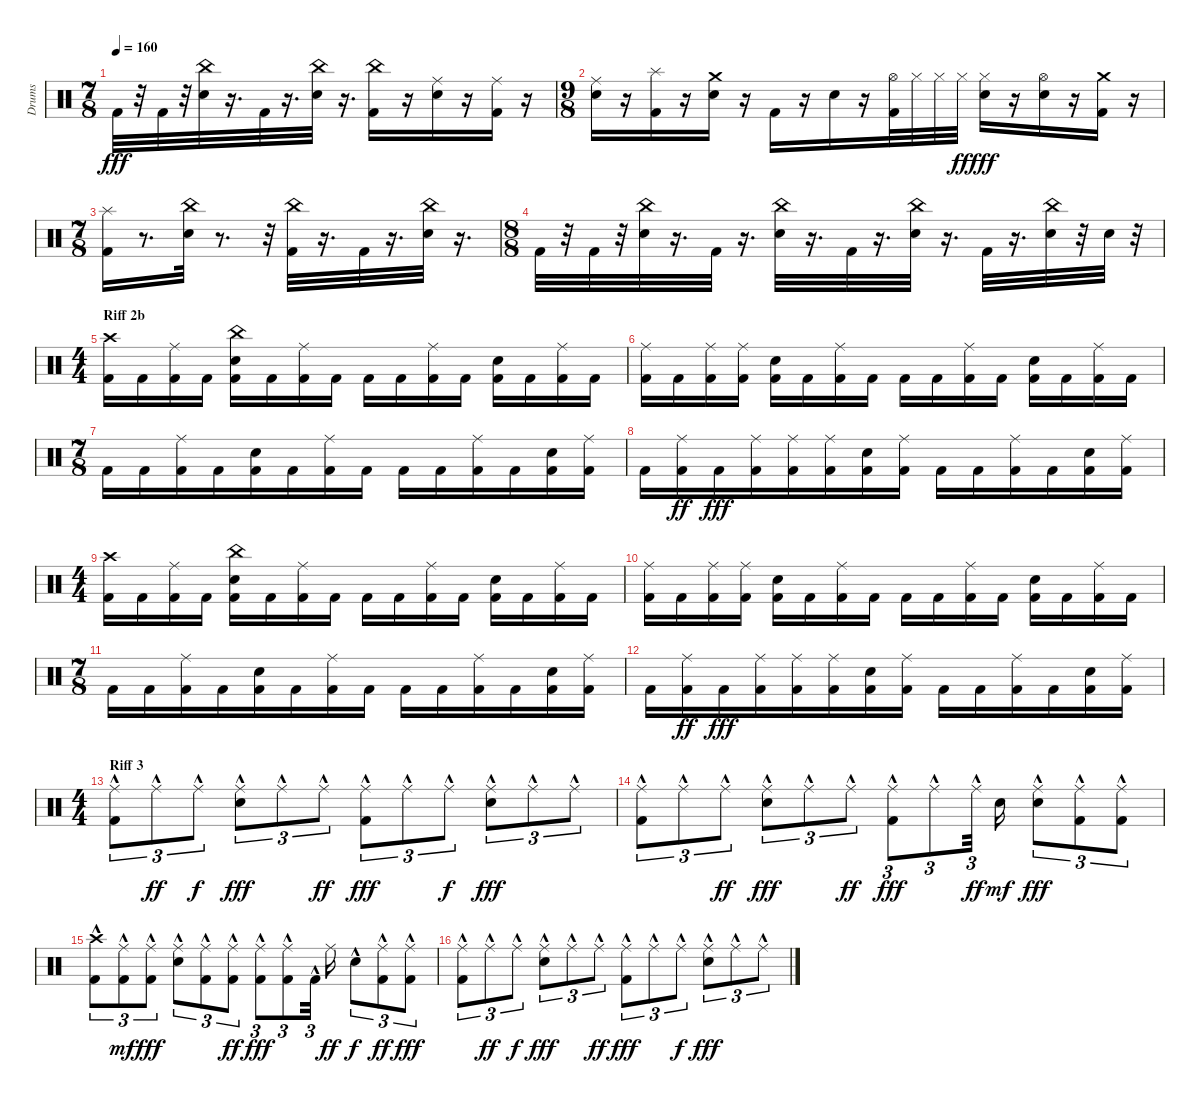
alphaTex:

\track ("Drums" "Drums") {instrument percussion}
\staff {score}
\articulation defaults
\ts (7 8)
\tempo 160
\clef neutral
\ks c "Kick (hit) 2".32{dy fff}
r.32 "Kick (hit) 2".32 r.32 ("Snare (hit) 2" "China (hit)").32 r.16{d} "Kick (hit) 2".32 r.16{d} ("Snare (hit) 2" "China (hit)").32 r.16{d} ("Kick (hit) 2" "China (hit)").16 r.16 ("Snare (hit) 2" "Ride (middle)").16 r.16 ("Kick (hit) 2" "Ride (middle)").16 r.16 |
\ts (9 8)
("Snare (hit) 2" "Ride (middle)").16 r.16 ("Kick (hit) 2" "Splash (hit)").16 r.16 ("Snare (hit) 2" "Crash medium (hit)").16 r.16 "Kick (hit) 2".16 r.16 "Snare (hit) 2".16 r.16 ("Kick (hit) 2" "Hi-Hat (open)").32 "Hi-Hat (closed)".32 "Hi-Hat (closed)".32 "Hi-Hat (closed)".32{dy ff} ("Snare (hit) 2" "Hi-Hat (closed)").16{dy fff} r.16 ("Snare (hit) 2" "Hi-Hat (open)").16 r.16 ("Kick (hit) 2" "Crash medium (hit)").16 r.16 |
\ts (7 8)
("Kick (hit) 2" "Splash (hit)").16 r.8{d} ("Snare (hit) 2" "China (hit)").32 r.8{d} r.32 ("Kick (hit) 2" "China (hit)").32 r.16{d} "Kick (hit) 2".32 r.16{d} ("Snare (hit) 2" "China (hit)").32 r.16{d} |
\ts (8 8)
"Kick (hit) 2".32 r.32 "Kick (hit) 2".32 r.32 ("Snare (hit) 2" "China (hit)").32 r.16{d} "Kick (hit) 2".32 r.16{d} ("Snare (hit) 2" "China (hit)").32 r.16{d} "Kick (hit) 2".32 r.16{d} ("Snare (hit) 2" "China (hit)").32 r.16{d} "Kick (hit) 2".32 r.16{d} ("Snare (hit) 2" "China (hit)").32 r.32 "Snare (hit) 2".32 r.32 |
\ts (4 4)
\section ("" "Riff 2b")
("Kick (hit) 2" "Crash high (hit)").16 "Kick (hit) 2".16 ("Kick (hit) 2" "Ride (middle)").16 "Kick (hit) 2".16 ("Kick (hit) 2" "Snare (hit) 2" "China (hit)").16 "Kick (hit) 2".16 ("Kick (hit) 2" "Ride (middle)").16 "Kick (hit) 2".16 "Kick (hit) 2".16 "Kick (hit) 2".16 ("Kick (hit) 2" "Ride (middle)").16 "Kick (hit) 2".16 ("Kick (hit) 2" "Snare (hit) 2").16 "Kick (hit) 2".16 ("Kick (hit) 2" "Ride (middle)").16 "Kick (hit) 2".16 |
("Kick (hit) 2" "Ride (middle)").16 "Kick (hit) 2".16 ("Kick (hit) 2" "Ride (middle)").16 ("Kick (hit) 2" "Ride (middle)").16 ("Kick (hit) 2" "Snare (hit) 2").16 "Kick (hit) 2".16 ("Kick (hit) 2" "Ride (middle)").16 "Kick (hit) 2".16 "Kick (hit) 2".16 "Kick (hit) 2".16 ("Kick (hit) 2" "Ride (middle)").16 "Kick (hit) 2".16 ("Kick (hit) 2" "Snare (hit) 2").16 "Kick (hit) 2".16 ("Kick (hit) 2" "Ride (middle)").16 "Kick (hit) 2".16 |
\ts (7 8)
"Kick (hit) 2".16 "Kick (hit) 2".16 ("Kick (hit) 2" "Ride (middle)").16 "Kick (hit) 2".16 ("Kick (hit) 2" "Snare (hit) 2").16 "Kick (hit) 2".16 ("Kick (hit) 2" "Ride (middle)").16 "Kick (hit) 2".16 "Kick (hit) 2".16 "Kick (hit) 2".16 ("Kick (hit) 2" "Ride (middle)").16 "Kick (hit) 2".16 ("Kick (hit) 2" "Snare (hit) 2").16 ("Kick (hit) 2" "Ride (middle)").16 |
"Kick (hit) 2".16 ("Kick (hit) 2" "Ride (middle)").16{dy ff} "Kick (hit) 2".16{dy fff} ("Kick (hit) 2" "Ride (middle)").16 ("Kick (hit) 2" "Ride (middle)").16 ("Kick (hit) 2" "Ride (middle)").16 ("Kick (hit) 2" "Snare (hit) 2").16 ("Kick (hit) 2" "Ride (middle)").16 "Kick (hit) 2".16 "Kick (hit) 2".16 ("Kick (hit) 2" "Ride (middle)").16 "Kick (hit) 2".16 ("Kick (hit) 2" "Snare (hit) 2").16 ("Kick (hit) 2" "Ride (middle)").16 |
\ts (4 4)
("Kick (hit) 2" "Crash high (hit)").16 "Kick (hit) 2".16 ("Kick (hit) 2" "Ride (middle)").16 "Kick (hit) 2".16 ("Kick (hit) 2" "Snare (hit) 2" "China (hit)").16 "Kick (hit) 2".16 ("Kick (hit) 2" "Ride (middle)").16 "Kick (hit) 2".16 "Kick (hit) 2".16 "Kick (hit) 2".16 ("Kick (hit) 2" "Ride (middle)").16 "Kick (hit) 2".16 ("Kick (hit) 2" "Snare (hit) 2").16 "Kick (hit) 2".16 ("Kick (hit) 2" "Ride (middle)").16 "Kick (hit) 2".16 |
("Kick (hit) 2" "Ride (middle)").16 "Kick (hit) 2".16 ("Kick (hit) 2" "Ride (middle)").16 ("Kick (hit) 2" "Ride (middle)").16 ("Kick (hit) 2" "Snare (hit) 2").16 "Kick (hit) 2".16 ("Kick (hit) 2" "Ride (middle)").16 "Kick (hit) 2".16 "Kick (hit) 2".16 "Kick (hit) 2".16 ("Kick (hit) 2" "Ride (middle)").16 "Kick (hit) 2".16 ("Kick (hit) 2" "Snare (hit) 2").16 "Kick (hit) 2".16 ("Kick (hit) 2" "Ride (middle)").16 "Kick (hit) 2".16 |
\ts (7 8)
"Kick (hit) 2".16 "Kick (hit) 2".16 ("Kick (hit) 2" "Ride (middle)").16 "Kick (hit) 2".16 ("Kick (hit) 2" "Snare (hit) 2").16 "Kick (hit) 2".16 ("Kick (hit) 2" "Ride (middle)").16 "Kick (hit) 2".16 "Kick (hit) 2".16 "Kick (hit) 2".16 ("Kick (hit) 2" "Ride (middle)").16 "Kick (hit) 2".16 ("Kick (hit) 2" "Snare (hit) 2").16 ("Kick (hit) 2" "Ride (middle)").16 |
"Kick (hit) 2".16 ("Kick (hit) 2" "Ride (middle)").16{dy ff} "Kick (hit) 2".16{dy fff} ("Kick (hit) 2" "Ride (middle)").16 ("Kick (hit) 2" "Ride (middle)").16 ("Kick (hit) 2" "Ride (middle)").16 ("Kick (hit) 2" "Snare (hit) 2").16 ("Kick (hit) 2" "Ride (middle)").16 "Kick (hit) 2".16 "Kick (hit) 2".16 ("Kick (hit) 2" "Ride (middle)").16 "Kick (hit) 2".16 ("Kick (hit) 2" "Snare (hit) 2").16 ("Kick (hit) 2" "Ride (middle)").16 |
\ts (4 4)
\section ("" "Riff 3")
("Kick (hit) 2"{hac} "Ride (middle)"{hac}).8{tu (3 2)} "Ride (middle)"{hac}.8{tu (3 2) dy ff} "Ride (middle)"{hac}.8{tu (3 2) dy f} ("Snare (hit) 2"{hac} "Ride (middle)"{hac}).8{tu (3 2) dy fff} "Ride (middle)"{hac}.8{tu (3 2)} "Ride (middle)"{hac}.8{tu (3 2) dy ff} ("Kick (hit) 2"{hac} "Ride (middle)"{hac}).8{tu (3 2) dy fff} "Ride (middle)"{hac}.8{tu (3 2)} "Ride (middle)"{hac}.8{tu (3 2) dy f} ("Snare (hit) 2"{hac} "Ride (middle)"{hac}).8{tu (3 2) dy fff} "Ride (middle)"{hac}.8{tu (3 2)} "Ride (middle)"{hac}.8{tu (3 2)} |
("Kick (hit) 2"{hac} "Ride (middle)"{hac}).8{tu (3 2)} "Ride (middle)"{hac}.8{tu (3 2)} "Ride (middle)"{hac}.8{tu (3 2) dy ff} ("Snare (hit) 2"{hac} "Ride (middle)"{hac}).8{tu (3 2) dy fff} "Ride (middle)"{hac}.8{tu (3 2)} "Ride (middle)"{hac}.8{tu (3 2) dy ff} ("Kick (hit) 2"{hac} "Ride (middle)"{hac}).8{tu (3 2) dy fff} "Ride (middle)"{hac}.8{tu (3 2)} "Ride (middle)"{hac}.32{tu (3 2) dy ff} "Snare (hit) 2".16{dy mf} ("Snare (hit) 2"{hac} "Ride (middle)"{hac}).8{tu (3 2) dy fff} ("Kick (hit) 2"{hac} "Ride (middle)"{hac}).8{tu (3 2)} ("Kick (hit) 2"{hac} "Ride (middle)"{hac}).8{tu (3 2)} |
("Kick (hit) 2"{hac} "Crash high (hit)"{hac}).8{tu (3 2)} ("Kick (hit) 2"{hac} "Ride (middle)"{hac}).8{tu (3 2) dy mf} ("Kick (hit) 2"{hac} "Ride (middle)"{hac}).8{tu (3 2) dy fff} ("Snare (hit) 2"{hac} "Ride (middle)"{hac}).8{tu (3 2)} ("Kick (hit) 2"{hac} "Ride (middle)"{hac}).8{tu (3 2)} ("Kick (hit) 2"{hac} "Ride (middle)"{hac}).8{tu (3 2) dy ff} ("Kick (hit) 2"{hac} "Ride (middle)"{hac}).8{tu (3 2) dy fff} ("Kick (hit) 2"{hac} "Ride (middle)"{hac}).8{tu (3 2)} "Kick (hit) 2"{hac}.32{tu (3 2)} "Ride (middle)".16{dy ff} "Snare (hit) 2"{hac}.8{tu (3 2) dy f} ("Kick (hit) 2"{hac} "Ride (middle)"{hac}).8{tu (3 2) dy ff} ("Kick (hit) 2"{hac} "Ride (middle)"{hac}).8{tu (3 2) dy fff} |
("Kick (hit) 2"{hac} "Ride (middle)"{hac}).8{tu (3 2)} "Ride (middle)"{hac}.8{tu (3 2) dy ff} "Ride (middle)"{hac}.8{tu (3 2) dy f} ("Snare (hit) 2"{hac} "Ride (middle)"{hac}).8{tu (3 2) dy fff} "Ride (middle)"{hac}.8{tu (3 2)} "Ride (middle)"{hac}.8{tu (3 2) dy ff} ("Kick (hit) 2"{hac} "Ride (middle)"{hac}).8{tu (3 2) dy fff} "Ride (middle)"{hac}.8{tu (3 2)} "Ride (middle)"{hac}.8{tu (3 2) dy f} ("Snare (hit) 2"{hac} "Ride (middle)"{hac}).8{tu (3 2) dy fff} "Ride (middle)"{hac}.8{tu (3 2)} "Ride (middle)"{hac}.8{tu (3 2)}
